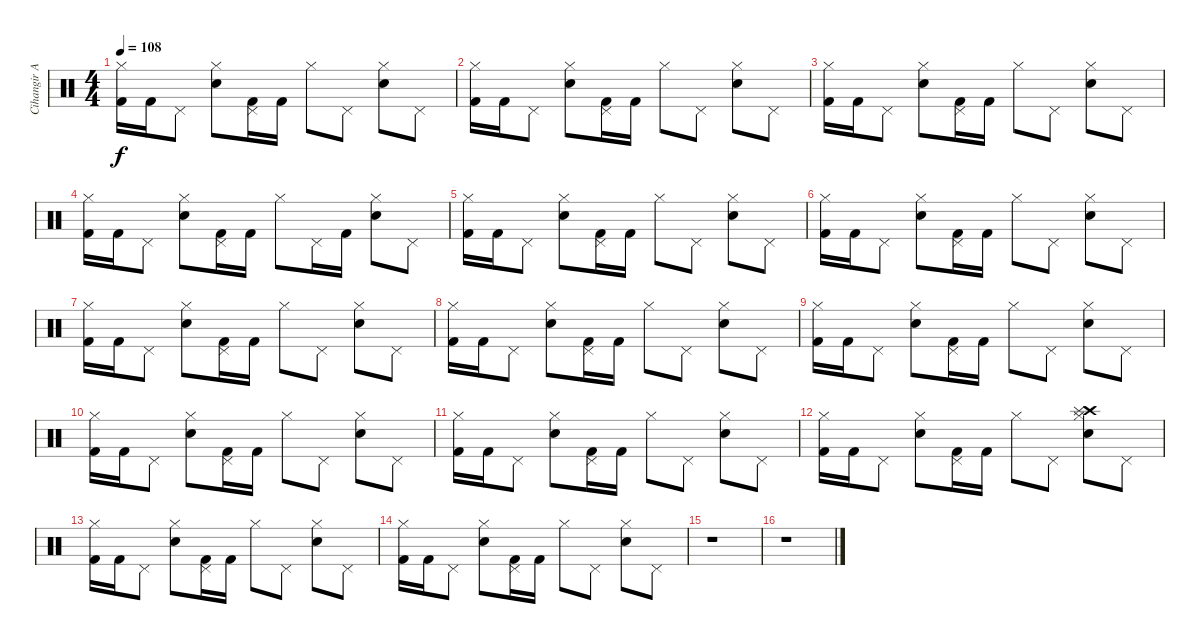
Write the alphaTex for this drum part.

\track ("Cihangir Akkuzu (Drums)" "Cihangir A") {instrument percussion}
\staff {score}
\articulation defaults
\ts (4 4)
\tempo 108
\clef neutral
\ks c
("Kick (hit) 2" "Hi-Hat (closed)").16{dy f} "Kick (hit) 2".16 "Pedal Hi-Hat (hit)".8 ("Snare (hit) 2" "Hi-Hat (closed)").8 ("Kick (hit) 2" "Pedal Hi-Hat (hit)").16 "Kick (hit) 2".16 "Hi-Hat (closed)".8 "Pedal Hi-Hat (hit)".8 ("Snare (hit) 2" "Hi-Hat (closed)").8 "Pedal Hi-Hat (hit)".8 |
("Kick (hit) 2" "Hi-Hat (closed)").16 "Kick (hit) 2".16 "Pedal Hi-Hat (hit)".8 ("Snare (hit) 2" "Hi-Hat (closed)").8 ("Kick (hit) 2" "Pedal Hi-Hat (hit)").16 "Kick (hit) 2".16 "Hi-Hat (closed)".8 "Pedal Hi-Hat (hit)".8 ("Snare (hit) 2" "Hi-Hat (closed)").8 "Pedal Hi-Hat (hit)".8 |
("Kick (hit) 2" "Hi-Hat (closed)").16 "Kick (hit) 2".16 "Pedal Hi-Hat (hit)".8 ("Snare (hit) 2" "Hi-Hat (closed)").8 ("Kick (hit) 2" "Pedal Hi-Hat (hit)").16 "Kick (hit) 2".16 "Hi-Hat (closed)".8 "Pedal Hi-Hat (hit)".8 ("Snare (hit) 2" "Hi-Hat (closed)").8 "Pedal Hi-Hat (hit)".8 |
("Kick (hit) 2" "Hi-Hat (closed)").16 "Kick (hit) 2".16 "Pedal Hi-Hat (hit)".8 ("Snare (hit) 2" "Hi-Hat (closed)").8 ("Kick (hit) 2" "Pedal Hi-Hat (hit)").16 "Kick (hit) 2".16 "Hi-Hat (closed)".8 "Pedal Hi-Hat (hit)".16 "Kick (hit) 2".16 ("Snare (hit) 2" "Hi-Hat (closed)").8 "Pedal Hi-Hat (hit)".8 |
("Kick (hit) 2" "Hi-Hat (closed)").16 "Kick (hit) 2".16 "Pedal Hi-Hat (hit)".8 ("Snare (hit) 2" "Hi-Hat (closed)").8 ("Kick (hit) 2" "Pedal Hi-Hat (hit)").16 "Kick (hit) 2".16 "Hi-Hat (closed)".8 "Pedal Hi-Hat (hit)".8 ("Snare (hit) 2" "Hi-Hat (closed)").8 "Pedal Hi-Hat (hit)".8 |
("Kick (hit) 2" "Hi-Hat (closed)").16 "Kick (hit) 2".16 "Pedal Hi-Hat (hit)".8 ("Snare (hit) 2" "Hi-Hat (closed)").8 ("Kick (hit) 2" "Pedal Hi-Hat (hit)").16 "Kick (hit) 2".16 "Hi-Hat (closed)".8 "Pedal Hi-Hat (hit)".8 ("Snare (hit) 2" "Hi-Hat (closed)").8 "Pedal Hi-Hat (hit)".8 |
("Kick (hit) 2" "Hi-Hat (closed)").16 "Kick (hit) 2".16 "Pedal Hi-Hat (hit)".8 ("Snare (hit) 2" "Hi-Hat (closed)").8 ("Kick (hit) 2" "Pedal Hi-Hat (hit)").16 "Kick (hit) 2".16 "Hi-Hat (closed)".8 "Pedal Hi-Hat (hit)".8 ("Snare (hit) 2" "Hi-Hat (closed)").8 "Pedal Hi-Hat (hit)".8 |
("Kick (hit) 2" "Hi-Hat (closed)").16 "Kick (hit) 2".16 "Pedal Hi-Hat (hit)".8 ("Snare (hit) 2" "Hi-Hat (closed)").8 ("Kick (hit) 2" "Pedal Hi-Hat (hit)").16 "Kick (hit) 2".16 "Hi-Hat (closed)".8 "Pedal Hi-Hat (hit)".8 ("Snare (hit) 2" "Hi-Hat (closed)").8 "Pedal Hi-Hat (hit)".8 |
("Kick (hit) 2" "Hi-Hat (closed)").16 "Kick (hit) 2".16 "Pedal Hi-Hat (hit)".8 ("Snare (hit) 2" "Hi-Hat (closed)").8 ("Kick (hit) 2" "Pedal Hi-Hat (hit)").16 "Kick (hit) 2".16 "Hi-Hat (closed)".8 "Pedal Hi-Hat (hit)".8 ("Snare (hit) 2" "Hi-Hat (closed)").8 "Pedal Hi-Hat (hit)".8 |
("Kick (hit) 2" "Hi-Hat (closed)").16 "Kick (hit) 2".16 "Pedal Hi-Hat (hit)".8 ("Snare (hit) 2" "Hi-Hat (closed)").8 ("Kick (hit) 2" "Pedal Hi-Hat (hit)").16 "Kick (hit) 2".16 "Hi-Hat (closed)".8 "Pedal Hi-Hat (hit)".8 ("Snare (hit) 2" "Hi-Hat (closed)").8 "Pedal Hi-Hat (hit)".8 |
("Kick (hit) 2" "Hi-Hat (closed)").16 "Kick (hit) 2".16 "Pedal Hi-Hat (hit)".8 ("Snare (hit) 2" "Hi-Hat (closed)").8 ("Kick (hit) 2" "Pedal Hi-Hat (hit)").16 "Kick (hit) 2".16 "Hi-Hat (closed)".8 "Pedal Hi-Hat (hit)".8 ("Snare (hit) 2" "Hi-Hat (closed)").8 "Pedal Hi-Hat (hit)".8 |
("Kick (hit) 2" "Hi-Hat (closed)").16 "Kick (hit) 2".16 "Pedal Hi-Hat (hit)".8 ("Snare (hit) 2" "Hi-Hat (closed)").8 ("Kick (hit) 2" "Pedal Hi-Hat (hit)").16 "Kick (hit) 2".16 "Hi-Hat (closed)".8 "Pedal Hi-Hat (hit)".8 ("Snare (hit) 2" "Hi-Hat (closed)" "Crash high (hit)" "Splash (hit)").8 "Pedal Hi-Hat (hit)".8 |
("Kick (hit) 2" "Hi-Hat (closed)").16 "Kick (hit) 2".16 "Pedal Hi-Hat (hit)".8 ("Snare (hit) 2" "Hi-Hat (closed)").8 ("Kick (hit) 2" "Pedal Hi-Hat (hit)").16 "Kick (hit) 2".16 "Hi-Hat (closed)".8 "Pedal Hi-Hat (hit)".8 ("Snare (hit) 2" "Hi-Hat (closed)").8 "Pedal Hi-Hat (hit)".8 |
("Kick (hit) 2" "Hi-Hat (closed)").16 "Kick (hit) 2".16 "Pedal Hi-Hat (hit)".8 ("Snare (hit) 2" "Hi-Hat (closed)").8 ("Kick (hit) 2" "Pedal Hi-Hat (hit)").16 "Kick (hit) 2".16 "Hi-Hat (closed)".8 "Pedal Hi-Hat (hit)".8 ("Snare (hit) 2" "Hi-Hat (closed)").8 "Pedal Hi-Hat (hit)".8 |
r.1 |
r.1
